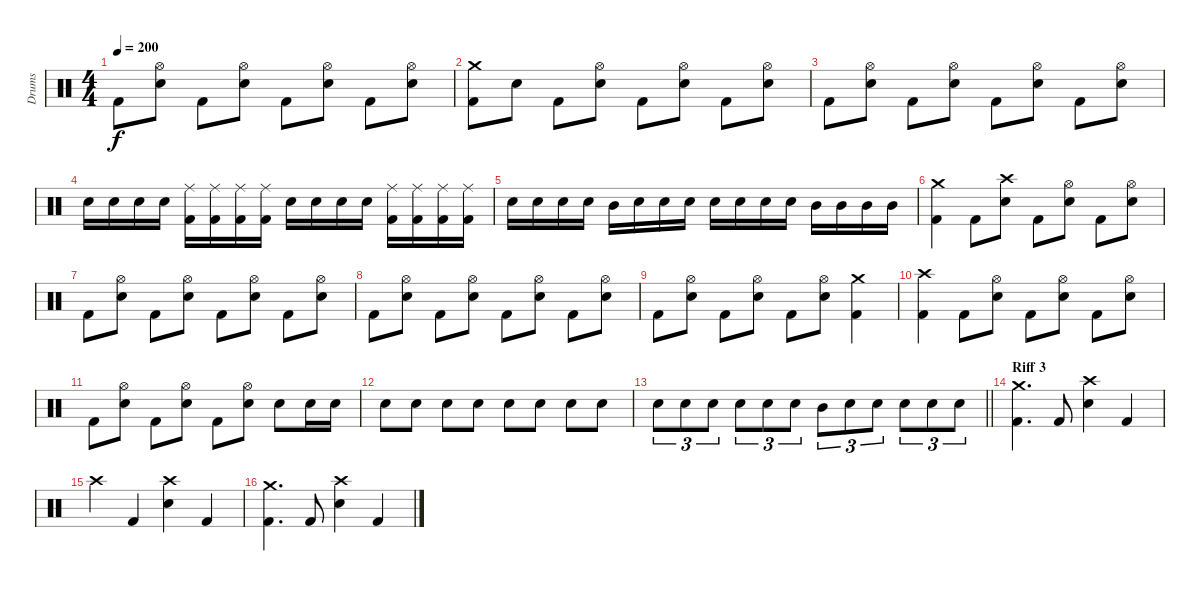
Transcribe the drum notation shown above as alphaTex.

\track ("Drums" "Drums") {instrument percussion}
\staff {score}
\articulation defaults
\ts (4 4)
\tempo 200
\clef neutral
\ks c "Kick (hit) 2".8{dy f}
("Hi-Hat (open)" "Electric Snare (hit)").8 "Kick (hit) 2".8 ("Hi-Hat (open)" "Electric Snare (hit)").8 "Kick (hit) 2".8 ("Hi-Hat (open)" "Electric Snare (hit)").8 "Kick (hit) 2".8 ("Hi-Hat (open)" "Electric Snare (hit)").8 |
("Crash medium (hit)" "Kick (hit) 2").8 "Electric Snare (hit)".8 "Kick (hit) 2".8 ("Hi-Hat (open)" "Electric Snare (hit)").8 "Kick (hit) 2".8 ("Hi-Hat (open)" "Electric Snare (hit)").8 "Kick (hit) 2".8 ("Hi-Hat (open)" "Electric Snare (hit)").8 |
"Kick (hit) 2".8 ("Hi-Hat (open)" "Electric Snare (hit)").8 "Kick (hit) 2".8 ("Hi-Hat (open)" "Electric Snare (hit)").8 "Kick (hit) 2".8 ("Hi-Hat (open)" "Electric Snare (hit)").8 "Kick (hit) 2".8 ("Hi-Hat (open)" "Electric Snare (hit)").8 |
"Electric Snare (hit)".16 "Electric Snare (hit)".16 "Electric Snare (hit)".16 "Electric Snare (hit)".16 ("Kick (hit) 2" "Ride (middle)").16 ("Kick (hit) 2" "Ride (middle)").16 ("Kick (hit) 2" "Ride (middle)").16 ("Kick (hit) 2" "Ride (middle)").16 "Electric Snare (hit)".16 "Electric Snare (hit)".16 "Electric Snare (hit)".16 "Electric Snare (hit)".16 ("Kick (hit) 2" "Ride (middle)").16 ("Kick (hit) 2" "Ride (middle)").16 ("Kick (hit) 2" "Ride (middle)").16 ("Kick (hit) 2" "Ride (middle)").16 |
"Electric Snare (hit)".16 "Electric Snare (hit)".16 "Electric Snare (hit)".16 "Electric Snare (hit)".16 "Mid Tom (hit)".16 "Electric Snare (hit)".16 "Electric Snare (hit)".16 "Electric Snare (hit)".16 "Electric Snare (hit)".16 "Electric Snare (hit)".16 "Electric Snare (hit)".16 "Electric Snare (hit)".16 "Mid Tom (hit)".16 "Mid Tom (hit)".16 "Mid Tom (hit)".16 "Mid Tom (hit)".16 |
("Crash medium (hit)" "Kick (hit) 2").4 "Kick (hit) 2".8 ("Crash high (hit)" "Electric Snare (hit)").8 "Kick (hit) 2".8 ("Hi-Hat (open)" "Electric Snare (hit)").8 "Kick (hit) 2".8 ("Hi-Hat (open)" "Electric Snare (hit)").8 |
"Kick (hit) 2".8 ("Hi-Hat (open)" "Electric Snare (hit)").8 "Kick (hit) 2".8 ("Hi-Hat (open)" "Electric Snare (hit)").8 "Kick (hit) 2".8 ("Hi-Hat (open)" "Electric Snare (hit)").8 "Kick (hit) 2".8 ("Hi-Hat (open)" "Electric Snare (hit)").8 |
"Kick (hit) 2".8 ("Hi-Hat (open)" "Electric Snare (hit)").8 "Kick (hit) 2".8 ("Hi-Hat (open)" "Electric Snare (hit)").8 "Kick (hit) 2".8 ("Hi-Hat (open)" "Electric Snare (hit)").8 "Kick (hit) 2".8 ("Hi-Hat (open)" "Electric Snare (hit)").8 |
"Kick (hit) 2".8 ("Hi-Hat (open)" "Electric Snare (hit)").8 "Kick (hit) 2".8 ("Hi-Hat (open)" "Electric Snare (hit)").8 "Kick (hit) 2".8 ("Hi-Hat (open)" "Electric Snare (hit)").8 ("Kick (hit) 2" "Crash medium (hit)").4 |
("Crash high (hit)" "Kick (hit) 2").4 "Kick (hit) 2".8 ("Hi-Hat (open)" "Electric Snare (hit)").8 "Kick (hit) 2".8 ("Hi-Hat (open)" "Electric Snare (hit)").8 "Kick (hit) 2".8 ("Hi-Hat (open)" "Electric Snare (hit)").8 |
"Kick (hit) 2".8 ("Hi-Hat (open)" "Electric Snare (hit)").8 "Kick (hit) 2".8 ("Hi-Hat (open)" "Electric Snare (hit)").8 "Kick (hit) 2".8 ("Hi-Hat (open)" "Electric Snare (hit)").8 "Electric Snare (hit)".8 "Electric Snare (hit)".16 "Electric Snare (hit)".16 |
"Electric Snare (hit)".8 "Electric Snare (hit)".8 "Electric Snare (hit)".8 "Electric Snare (hit)".8 "Electric Snare (hit)".8 "Electric Snare (hit)".8 "Electric Snare (hit)".8 "Electric Snare (hit)".8 |
\barLineRight lightlight "Electric Snare (hit)".8{tu (3 2)} "Electric Snare (hit)".8{tu (3 2)} "Electric Snare (hit)".8{tu (3 2)} "Electric Snare (hit)".8{tu (3 2)} "Electric Snare (hit)".8{tu (3 2)} "Electric Snare (hit)".8{tu (3 2)} "Mid Tom (hit)".8{tu (3 2)} "Electric Snare (hit)".8{tu (3 2)} "Electric Snare (hit)".8{tu (3 2)} "Electric Snare (hit)".8{tu (3 2)} "Electric Snare (hit)".8{tu (3 2)} "Electric Snare (hit)".8{tu (3 2)}
|
\section ("" "Riff 3")
("Crash medium (hit)" "Kick (hit) 2").4{d} "Kick (hit) 2".8 ("Crash high (hit)" "Electric Snare (hit)").4 "Kick (hit) 2".4 |
"Crash high (hit)".4 "Kick (hit) 2".4 ("Crash high (hit)" "Electric Snare (hit)").4 "Kick (hit) 2".4 |
("Crash medium (hit)" "Kick (hit) 2").4{d} "Kick (hit) 2".8 ("Crash high (hit)" "Electric Snare (hit)").4 "Kick (hit) 2".4
